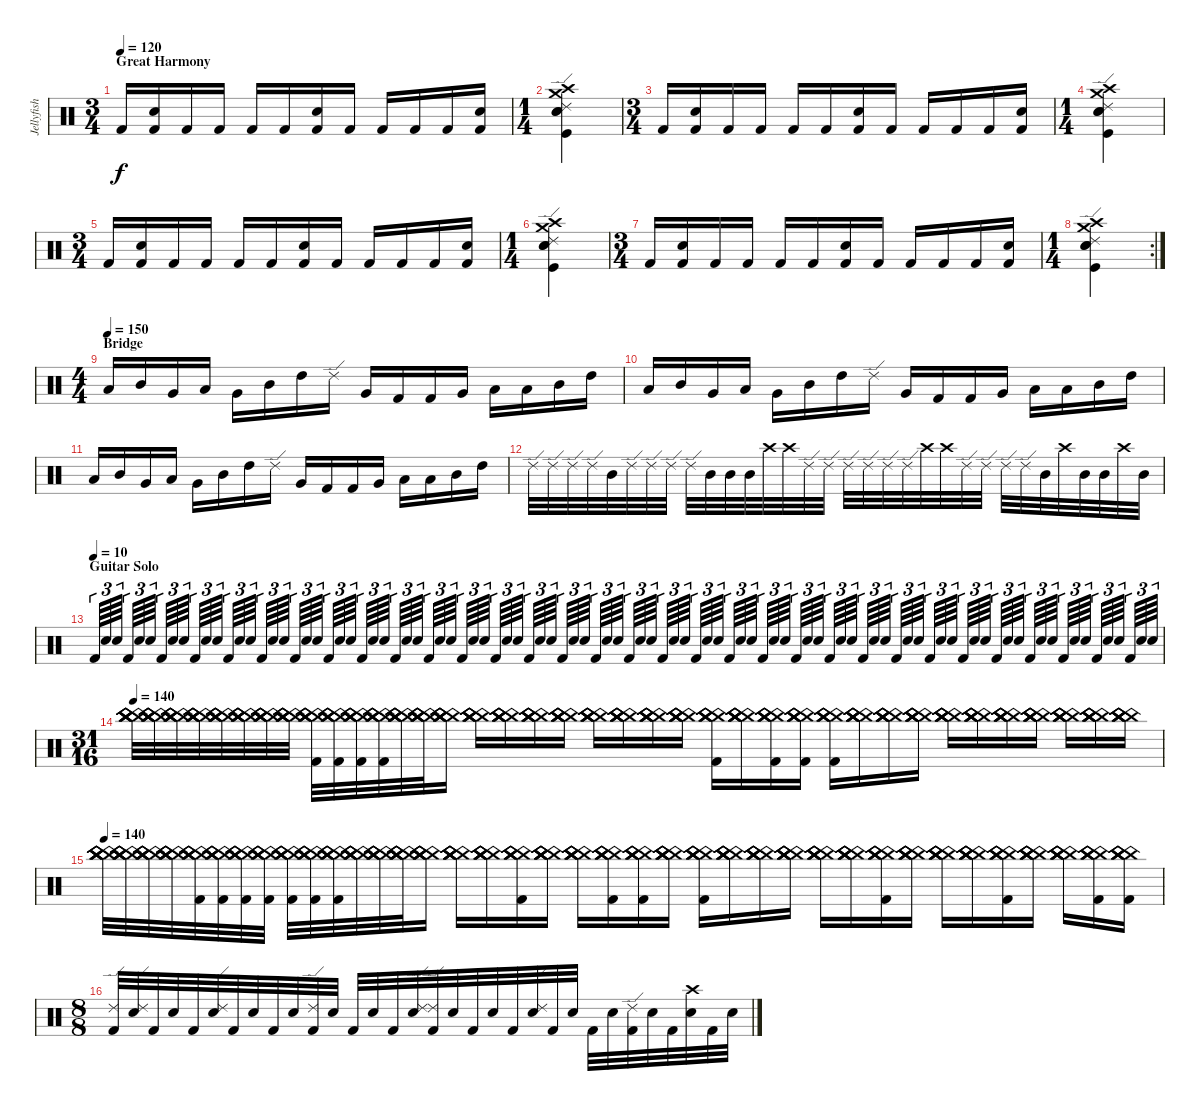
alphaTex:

\track ("Jellyfish" "Jellyfish") {instrument percussion}
\staff {score}
\articulation defaults
\ts (3 4)
\section ("" "Great Harmony")
\tempo 120
\clef neutral
\ks c "Kick (hit) 2".16{dy f}
("Snare (hit) 2" "Kick (hit) 2").16 "Kick (hit) 2".16 "Kick (hit) 2".16 "Kick (hit) 2".16 "Kick (hit) 2".16 ("Snare (hit) 2" "Kick (hit) 2").16 "Kick (hit) 2".16 "Kick (hit) 2".16 "Kick (hit) 2".16 "Kick (hit) 2".16 ("Snare (hit) 2" "Kick (hit) 2").16 |
\ts (1 4)
("Crash high (hit)" "Crash medium (hit)" "Ride (edge) 2" "Kick (hit)" "Electric Snare (hit)" "Snare (hit) 2").4 |
\ts (3 4)
"Kick (hit) 2".16 ("Snare (hit) 2" "Kick (hit) 2").16 "Kick (hit) 2".16 "Kick (hit) 2".16 "Kick (hit) 2".16 "Kick (hit) 2".16 ("Snare (hit) 2" "Kick (hit) 2").16 "Kick (hit) 2".16 "Kick (hit) 2".16 "Kick (hit) 2".16 "Kick (hit) 2".16 ("Snare (hit) 2" "Kick (hit) 2").16 |
\ts (1 4)
("Crash high (hit)" "Crash medium (hit)" "Ride (edge) 2" "Kick (hit)" "Electric Snare (hit)" "Snare (hit) 2").4 |
\ts (3 4)
"Kick (hit) 2".16 ("Snare (hit) 2" "Kick (hit) 2").16 "Kick (hit) 2".16 "Kick (hit) 2".16 "Kick (hit) 2".16 "Kick (hit) 2".16 ("Snare (hit) 2" "Kick (hit) 2").16 "Kick (hit) 2".16 "Kick (hit) 2".16 "Kick (hit) 2".16 "Kick (hit) 2".16 ("Snare (hit) 2" "Kick (hit) 2").16 |
\ts (1 4)
("Crash high (hit)" "Crash medium (hit)" "Ride (edge) 2" "Kick (hit)" "Electric Snare (hit)" "Snare (hit) 2").4 |
\ts (3 4)
"Kick (hit) 2".16 ("Snare (hit) 2" "Kick (hit) 2").16 "Kick (hit) 2".16 "Kick (hit) 2".16 "Kick (hit) 2".16 "Kick (hit) 2".16 ("Snare (hit) 2" "Kick (hit) 2").16 "Kick (hit) 2".16 "Kick (hit) 2".16 "Kick (hit) 2".16 "Kick (hit) 2".16 ("Snare (hit) 2" "Kick (hit) 2").16 |
\rc 2
\ts (1 4)
("Crash high (hit)" "Crash medium (hit)" "Ride (edge) 2" "Kick (hit)" "Electric Snare (hit)" "Snare (hit) 2").4 |
\ts (4 4)
\section ("" "Bridge")
\tempo (150)
"Low Tom (hit)".16 "Mid Tom (hit)".16 "Very Low Tom (hit)".16 "Low Floor Tom (hit)".16 "Very Low Tom (hit)".16 "Mid Tom (hit)".16 "High Tom (hit)".16 "Ride (edge) 2".16 "Very Low Tom (hit)".16 "Kick (hit) 2".16 "Kick (hit) 2".16 "Very Low Tom (hit)".16 "Low Floor Tom (hit)".16 "Low Tom (hit)".16 "Mid Tom (hit)".16 "High Tom (hit)".16 |
"Low Tom (hit)".16 "Mid Tom (hit)".16 "Very Low Tom (hit)".16 "Low Floor Tom (hit)".16 "Very Low Tom (hit)".16 "Mid Tom (hit)".16 "High Tom (hit)".16 "Ride (edge) 2".16 "Very Low Tom (hit)".16 "Kick (hit) 2".16 "Kick (hit) 2".16 "Very Low Tom (hit)".16 "Low Floor Tom (hit)".16 "Low Tom (hit)".16 "Mid Tom (hit)".16 "High Tom (hit)".16 |
"Low Tom (hit)".16 "Mid Tom (hit)".16 "Very Low Tom (hit)".16 "Low Floor Tom (hit)".16 "Very Low Tom (hit)".16 "Mid Tom (hit)".16 "High Tom (hit)".16 "Ride (edge) 2".16 "Very Low Tom (hit)".16 "Kick (hit) 2".16 "Kick (hit) 2".16 "Very Low Tom (hit)".16 "Low Floor Tom (hit)".16 "Low Tom (hit)".16 "Mid Tom (hit)".16 "High Tom (hit)".16 |
"Ride (edge) 2".32 "Ride (edge) 2".32 "Ride (edge) 2".32 "Ride (edge) 2".32 "Mid Tom (hit)".32 "Ride (edge) 2".32 "Ride (edge) 2".32 "Ride (edge) 2".32 "Ride (edge) 2".32 "Mid Tom (hit)".32 "Mid Tom (hit)".32 "Mid Tom (hit)".32 "Crash high (hit)".32 "Crash high (hit)".32 "Ride (edge) 2".32 "Ride (edge) 2".32 "Ride (edge) 2".32 "Ride (edge) 2".32 "Ride (edge) 2".32 "Ride (edge) 2".32 "Crash high (hit)".32 "Crash high (hit)".32 "Ride (edge) 2".32 "Ride (edge) 2".32 "Ride (edge) 2".32 "Ride (edge) 2".32 "Mid Tom (hit)".32 "Crash high (hit)".32 "Mid Tom (hit)".32 "Mid Tom (hit)".32 "Crash high (hit)".32 "Mid Tom (hit)".32 |
\section ("" "Guitar Solo")
\tempo (10)
"Kick (hit) 2".64{tu (3 2)} "Snare (hit) 2".64{tu (3 2)} "Snare (hit) 2".64{tu (3 2)} "Kick (hit) 2".64{tu (3 2)} "Snare (hit) 2".64{tu (3 2)} "Snare (hit) 2".64{tu (3 2)} "Kick (hit) 2".64{tu (3 2)} "Snare (hit) 2".64{tu (3 2)} "Snare (hit) 2".64{tu (3 2)} "Kick (hit) 2".64{tu (3 2)} "Snare (hit) 2".64{tu (3 2)} "Snare (hit) 2".64{tu (3 2)} "Kick (hit) 2".64{tu (3 2)} "Snare (hit) 2".64{tu (3 2)} "Snare (hit) 2".64{tu (3 2)} "Kick (hit) 2".64{tu (3 2)} "Snare (hit) 2".64{tu (3 2)} "Snare (hit) 2".64{tu (3 2)} "Kick (hit) 2".64{tu (3 2)} "Snare (hit) 2".64{tu (3 2)} "Snare (hit) 2".64{tu (3 2)} "Kick (hit) 2".64{tu (3 2)} "Snare (hit) 2".64{tu (3 2)} "Snare (hit) 2".64{tu (3 2)} "Kick (hit) 2".64{tu (3 2)} "Snare (hit) 2".64{tu (3 2)} "Snare (hit) 2".64{tu (3 2)} "Kick (hit) 2".64{tu (3 2)} "Snare (hit) 2".64{tu (3 2)} "Snare (hit) 2".64{tu (3 2)} "Kick (hit) 2".64{tu (3 2)} "Snare (hit) 2".64{tu (3 2)} "Snare (hit) 2".64{tu (3 2)} "Kick (hit) 2".64{tu (3 2)} "Snare (hit) 2".64{tu (3 2)} "Snare (hit) 2".64{tu (3 2)} "Kick (hit) 2".64{tu (3 2)} "Snare (hit) 2".64{tu (3 2)} "Snare (hit) 2".64{tu (3 2)} "Kick (hit) 2".64{tu (3 2)} "Snare (hit) 2".64{tu (3 2)} "Snare (hit) 2".64{tu (3 2)} "Kick (hit) 2".64{tu (3 2)} "Snare (hit) 2".64{tu (3 2)} "Snare (hit) 2".64{tu (3 2)} "Kick (hit) 2".64{tu (3 2)} "Snare (hit) 2".64{tu (3 2)} "Snare (hit) 2".64{tu (3 2)} "Kick (hit) 2".64{tu (3 2)} "Snare (hit) 2".64{tu (3 2)} "Snare (hit) 2".64{tu (3 2)} "Kick (hit) 2".64{tu (3 2)} "Snare (hit) 2".64{tu (3 2)} "Snare (hit) 2".64{tu (3 2)} "Kick (hit) 2".64{tu (3 2)} "Snare (hit) 2".64{tu (3 2)} "Snare (hit) 2".64{tu (3 2)} "Kick (hit) 2".64{tu (3 2)} "Snare (hit) 2".64{tu (3 2)} "Snare (hit) 2".64{tu (3 2)} "Kick (hit) 2".64{tu (3 2)} "Snare (hit) 2".64{tu (3 2)} "Snare (hit) 2".64{tu (3 2)} "Kick (hit) 2".64{tu (3 2)} "Snare (hit) 2".64{tu (3 2)} "Snare (hit) 2".64{tu (3 2)} "Kick (hit) 2".64{tu (3 2)} "Snare (hit) 2".64{tu (3 2)} "Snare (hit) 2".64{tu (3 2)} "Kick (hit) 2".64{tu (3 2)} "Snare (hit) 2".64{tu (3 2)} "Snare (hit) 2".64{tu (3 2)} "Kick (hit) 2".64{tu (3 2)} "Snare (hit) 2".64{tu (3 2)} "Snare (hit) 2".64{tu (3 2)} "Kick (hit) 2".64{tu (3 2)} "Snare (hit) 2".64{tu (3 2)} "Snare (hit) 2".64{tu (3 2)} "Kick (hit) 2".64{tu (3 2)} "Snare (hit) 2".64{tu (3 2)} "Snare (hit) 2".64{tu (3 2)} "Kick (hit) 2".64{tu (3 2)} "Snare (hit) 2".64{tu (3 2)} "Snare (hit) 2".64{tu (3 2)} "Kick (hit) 2".64{tu (3 2)} "Snare (hit) 2".64{tu (3 2)} "Snare (hit) 2".64{tu (3 2)} "Kick (hit) 2".64{tu (3 2)} "Snare (hit) 2".64{tu (3 2)} "Snare (hit) 2".64{tu (3 2)} "Kick (hit) 2".64{tu (3 2)} "Snare (hit) 2".64{tu (3 2)} "Snare (hit) 2".64{tu (3 2)} "Kick (hit) 2".64{tu (3 2)} "Snare (hit) 2".64{tu (3 2)} "Snare (hit) 2".64{tu (3 2)} |
\ts (31 16)
\tempo 140
("China (hit)" "China (hit)" "China (hit)" "China (hit)" "China (hit)" "China (hit)").32 ("China (hit)" "China (hit)" "China (hit)" "China (hit)" "China (hit)" "China (hit)").32 ("China (hit)" "China (hit)" "China (hit)" "China (hit)" "China (hit)" "China (hit)").32 ("China (hit)" "China (hit)" "China (hit)" "China (hit)" "China (hit)" "China (hit)").32 ("China (hit)" "China (hit)" "China (hit)" "China (hit)" "China (hit)" "China (hit)").32 ("China (hit)" "China (hit)" "China (hit)" "China (hit)" "China (hit)" "China (hit)").32 ("China (hit)" "China (hit)" "China (hit)" "China (hit)" "China (hit)" "China (hit)").32 ("China (hit)" "China (hit)" "China (hit)" "China (hit)" "China (hit)" "China (hit)").32 ("China (hit)" "China (hit)" "China (hit)" "China (hit)" "China (hit)" "Kick (hit) 2").32 ("China (hit)" "China (hit)" "China (hit)" "China (hit)" "China (hit)" "Kick (hit) 2").32 ("China (hit)" "China (hit)" "China (hit)" "China (hit)" "China (hit)" "Kick (hit) 2").32 ("China (hit)" "China (hit)" "China (hit)" "China (hit)" "China (hit)" "Kick (hit) 2").32 ("China (hit)" "China (hit)" "China (hit)" "China (hit)" "China (hit)" "China (hit)").32 ("China (hit)" "China (hit)" "China (hit)" "China (hit)" "China (hit)" "China (hit)").32 ("China (hit)" "China (hit)" "China (hit)" "China (hit)" "China (hit)" "China (hit)").16 ("China (hit)" "China (hit)" "China (hit)" "China (hit)" "China (hit)" "China (hit)").16 ("China (hit)" "China (hit)" "China (hit)" "China (hit)" "China (hit)" "China (hit)").16 ("China (hit)" "China (hit)" "China (hit)" "China (hit)" "China (hit)" "China (hit)").16 ("China (hit)" "China (hit)" "China (hit)" "China (hit)" "China (hit)" "China (hit)").16 ("China (hit)" "China (hit)" "China (hit)" "China (hit)" "China (hit)" "China (hit)").16 ("China (hit)" "China (hit)" "China (hit)" "China (hit)" "China (hit)" "China (hit)").16 ("China (hit)" "China (hit)" "China (hit)" "China (hit)" "China (hit)" "China (hit)").16 ("China (hit)" "China (hit)" "China (hit)" "China (hit)" "China (hit)" "China (hit)").16 ("China (hit)" "China (hit)" "China (hit)" "China (hit)" "China (hit)" "Kick (hit) 2").16 ("China (hit)" "China (hit)" "China (hit)" "China (hit)" "China (hit)" "China (hit)").16 ("China (hit)" "China (hit)" "China (hit)" "China (hit)" "China (hit)" "Kick (hit) 2").16 ("China (hit)" "China (hit)" "China (hit)" "China (hit)" "China (hit)" "Kick (hit) 2").16 ("China (hit)" "China (hit)" "China (hit)" "China (hit)" "China (hit)" "Kick (hit) 2").16 ("China (hit)" "China (hit)" "China (hit)" "China (hit)" "China (hit)" "China (hit)").16 ("China (hit)" "China (hit)" "China (hit)" "China (hit)" "China (hit)" "China (hit)").16 ("China (hit)" "China (hit)" "China (hit)" "China (hit)" "China (hit)" "China (hit)").16 ("China (hit)" "China (hit)" "China (hit)" "China (hit)" "China (hit)" "China (hit)").16 ("China (hit)" "China (hit)" "China (hit)" "China (hit)" "China (hit)" "China (hit)").16 ("China (hit)" "China (hit)" "China (hit)" "China (hit)" "China (hit)" "China (hit)").16 ("China (hit)" "China (hit)" "China (hit)" "China (hit)" "China (hit)" "China (hit)").16 ("China (hit)" "China (hit)" "China (hit)" "China (hit)" "China (hit)" "China (hit)").16 ("China (hit)" "China (hit)" "China (hit)" "China (hit)" "China (hit)" "China (hit)").16 ("China (hit)" "China (hit)" "China (hit)" "China (hit)" "China (hit)" "China (hit)").16 |
\tempo 140
("China (hit)" "China (hit)" "China (hit)" "China (hit)" "China (hit)" "China (hit)").32 ("China (hit)" "China (hit)" "China (hit)" "China (hit)" "China (hit)" "China (hit)").32 ("China (hit)" "China (hit)" "China (hit)" "China (hit)" "China (hit)" "China (hit)").32 ("China (hit)" "China (hit)" "China (hit)" "China (hit)" "China (hit)" "China (hit)").32 ("China (hit)" "China (hit)" "China (hit)" "China (hit)" "China (hit)" "Kick (hit) 2").32 ("China (hit)" "China (hit)" "China (hit)" "China (hit)" "China (hit)" "Kick (hit) 2").32 ("China (hit)" "China (hit)" "China (hit)" "China (hit)" "China (hit)" "Kick (hit) 2").32 ("China (hit)" "China (hit)" "China (hit)" "China (hit)" "China (hit)" "Kick (hit) 2").32 ("China (hit)" "China (hit)" "China (hit)" "China (hit)" "China (hit)" "Kick (hit) 2").32 ("China (hit)" "China (hit)" "China (hit)" "China (hit)" "China (hit)" "Kick (hit) 2").32 ("China (hit)" "China (hit)" "China (hit)" "China (hit)" "China (hit)" "Kick (hit) 2").32 ("China (hit)" "China (hit)" "China (hit)" "China (hit)" "China (hit)" "China (hit)").32 ("China (hit)" "China (hit)" "China (hit)" "China (hit)" "China (hit)" "China (hit)").32 ("China (hit)" "China (hit)" "China (hit)" "China (hit)" "China (hit)" "China (hit)").32 ("China (hit)" "China (hit)" "China (hit)" "China (hit)" "China (hit)" "China (hit)").16 ("China (hit)" "China (hit)" "China (hit)" "China (hit)" "China (hit)" "China (hit)").16 ("China (hit)" "China (hit)" "China (hit)" "China (hit)" "China (hit)" "China (hit)").16 ("China (hit)" "China (hit)" "China (hit)" "Kick (hit) 2" "China (hit)" "China (hit)").16 ("China (hit)" "China (hit)" "China (hit)" "China (hit)" "China (hit)" "China (hit)").16 ("China (hit)" "China (hit)" "China (hit)" "China (hit)" "China (hit)" "China (hit)").16 ("China (hit)" "China (hit)" "China (hit)" "China (hit)" "China (hit)" "Kick (hit) 2").16 ("China (hit)" "China (hit)" "China (hit)" "China (hit)" "China (hit)" "Kick (hit) 2").16 ("China (hit)" "China (hit)" "China (hit)" "China (hit)" "China (hit)" "China (hit)").16 ("China (hit)" "China (hit)" "China (hit)" "China (hit)" "China (hit)" "Kick (hit) 2").16 ("China (hit)" "China (hit)" "China (hit)" "China (hit)" "China (hit)" "China (hit)").16 ("China (hit)" "China (hit)" "China (hit)" "China (hit)" "China (hit)" "China (hit)").16 ("China (hit)" "China (hit)" "China (hit)" "China (hit)" "China (hit)" "China (hit)").16 ("China (hit)" "China (hit)" "China (hit)" "China (hit)" "China (hit)" "China (hit)").16 ("China (hit)" "China (hit)" "China (hit)" "China (hit)" "China (hit)" "China (hit)").16 ("China (hit)" "China (hit)" "China (hit)" "Kick (hit) 2" "China (hit)" "China (hit)").16 ("China (hit)" "China (hit)" "China (hit)" "China (hit)" "China (hit)" "China (hit)").16 ("China (hit)" "China (hit)" "China (hit)" "China (hit)" "China (hit)" "China (hit)").16 ("China (hit)" "China (hit)" "China (hit)" "China (hit)" "China (hit)" "China (hit)").16 ("China (hit)" "China (hit)" "China (hit)" "Kick (hit) 2" "China (hit)" "China (hit)").16 ("China (hit)" "China (hit)" "China (hit)" "China (hit)" "China (hit)" "China (hit)").16 ("China (hit)" "China (hit)" "China (hit)" "China (hit)" "China (hit)" "China (hit)").16 ("China (hit)" "China (hit)" "China (hit)" "Kick (hit) 2" "China (hit)" "China (hit)").16 ("China (hit)" "China (hit)" "China (hit)" "China (hit)" "China (hit)" "Kick (hit) 2").16 |
\ts (8 8)
("Ride (edge) 2" "Kick (hit) 2").32 ("Ride (edge) 2" "Snare (hit) 2").32 "Kick (hit) 2".32 "Snare (hit) 2".32 "Kick (hit) 2".32 ("Ride (edge) 2" "Snare (hit) 2").32 "Kick (hit) 2".32 "Snare (hit) 2".32 "Kick (hit) 2".32 "Snare (hit) 2".32 ("Ride (edge) 2" "Kick (hit) 2").32 "Snare (hit) 2".32 "Kick (hit) 2".32 "Snare (hit) 2".32 "Kick (hit) 2".32 ("Ride (edge) 2" "Snare (hit) 2").32 ("Ride (edge) 2" "Kick (hit) 2").32 "Snare (hit) 2".32 "Kick (hit) 2".32 "Snare (hit) 2".32 "Kick (hit) 2".32 ("Ride (edge) 2" "Snare (hit) 2").32 "Kick (hit) 2".32 "Snare (hit) 2".32 "Kick (hit) 2".32 "Snare (hit) 2".32 ("Ride (edge) 2" "Kick (hit) 2").32 "Snare (hit) 2".32 "Kick (hit) 2".32 ("Crash high (hit)"{be (custom 0 0 15 12 30 12 45 0 60 0)} "Snare (hit) 2").32 "Kick (hit) 2".32 "Snare (hit) 2".32
